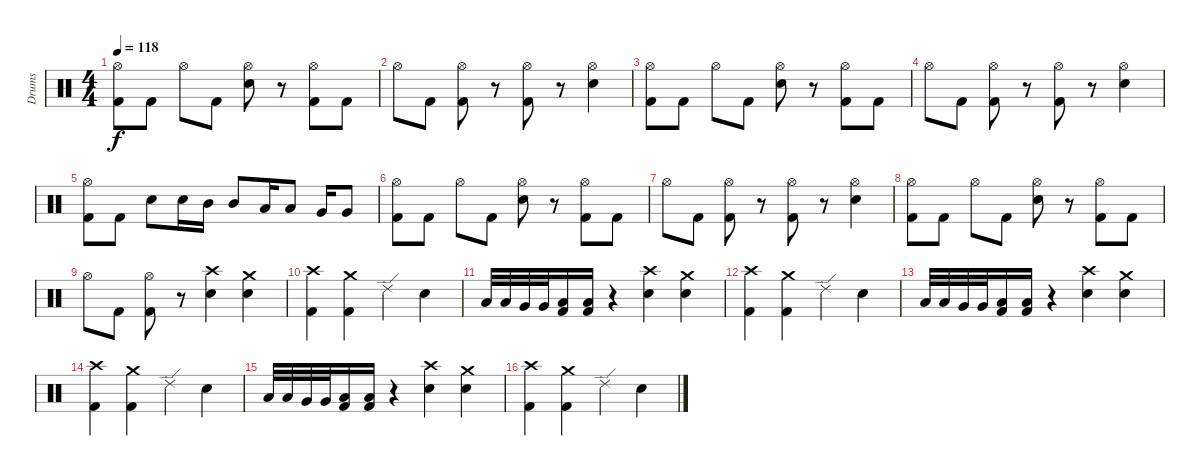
\track ("Drums" "Drums") {instrument percussion}
\staff {score}
\articulation defaults
\ts (4 4)
\tempo 118
\clef neutral
\ks c
("Hi-Hat (open)" "Kick (hit) 2").8{dy f} "Kick (hit) 2".8 "Hi-Hat (open)".8 "Kick (hit) 2".8 ("Hi-Hat (open)" "Electric Snare (hit)").8 r.8 ("Hi-Hat (open)" "Kick (hit) 2").8 "Kick (hit) 2".8 |
"Hi-Hat (open)".8 "Kick (hit) 2".8 ("Hi-Hat (open)" "Kick (hit) 2").8 r.8 ("Hi-Hat (open)" "Kick (hit) 2").8 r.8 ("Hi-Hat (open)" "Electric Snare (hit)").4 |
("Hi-Hat (open)" "Kick (hit) 2").8 "Kick (hit) 2".8 "Hi-Hat (open)".8 "Kick (hit) 2".8 ("Hi-Hat (open)" "Electric Snare (hit)").8 r.8 ("Hi-Hat (open)" "Kick (hit) 2").8 "Kick (hit) 2".8 |
"Hi-Hat (open)".8 "Kick (hit) 2".8 ("Hi-Hat (open)" "Kick (hit) 2").8 r.8 ("Hi-Hat (open)" "Kick (hit) 2").8 r.8 ("Hi-Hat (open)" "Electric Snare (hit)").4 |
("Hi-Hat (open)" "Kick (hit) 2").8 "Kick (hit) 2".8 "Electric Snare (hit)".8 "Electric Snare (hit)".16 "Mid Tom (hit)".16 "Mid Tom (hit)".8 "Low Tom (hit)".16 "Low Tom (hit)".8 "Very Low Tom (hit)".16 "Very Low Tom (hit)".8 |
("Hi-Hat (open)" "Kick (hit) 2").8 "Kick (hit) 2".8 "Hi-Hat (open)".8 "Kick (hit) 2".8 ("Hi-Hat (open)" "Electric Snare (hit)").8 r.8 ("Hi-Hat (open)" "Kick (hit) 2").8 "Kick (hit) 2".8 |
"Hi-Hat (open)".8 "Kick (hit) 2".8 ("Hi-Hat (open)" "Kick (hit) 2").8 r.8 ("Hi-Hat (open)" "Kick (hit) 2").8 r.8 ("Hi-Hat (open)" "Electric Snare (hit)").4 |
("Hi-Hat (open)" "Kick (hit) 2").8 "Kick (hit) 2".8 "Hi-Hat (open)".8 "Kick (hit) 2".8 ("Hi-Hat (open)" "Electric Snare (hit)").8 r.8 ("Hi-Hat (open)" "Kick (hit) 2").8 "Kick (hit) 2".8 |
"Hi-Hat (open)".8 "Kick (hit) 2".8 ("Hi-Hat (open)" "Kick (hit) 2").8 r.8 ("Crash high (hit)" "Electric Snare (hit)").4 ("Crash medium (hit)" "Electric Snare (hit)").4 |
("Crash high (hit)" "Kick (hit) 2").4 ("Crash medium (hit)" "Kick (hit) 2").4 "Ride (edge) 2".4 "Electric Snare (hit)".4 |
"Low Tom (hit)".32 "Low Tom (hit)".32 "Very Low Tom (hit)".32 "Very Low Tom (hit)".32 ("Low Floor Tom (hit)" "Kick (hit) 2").16 ("Low Floor Tom (hit)" "Kick (hit) 2").16 r.4 ("Crash high (hit)" "Electric Snare (hit)").4 ("Crash medium (hit)" "Electric Snare (hit)").4 |
("Crash high (hit)" "Kick (hit) 2").4 ("Crash medium (hit)" "Kick (hit) 2").4 "Ride (edge) 2".4 "Electric Snare (hit)".4 |
"Low Tom (hit)".32 "Low Tom (hit)".32 "Very Low Tom (hit)".32 "Very Low Tom (hit)".32 ("Low Floor Tom (hit)" "Kick (hit) 2").16 ("Low Floor Tom (hit)" "Kick (hit) 2").16 r.4 ("Crash high (hit)" "Electric Snare (hit)").4 ("Crash medium (hit)" "Electric Snare (hit)").4 |
("Crash high (hit)" "Kick (hit) 2").4 ("Crash medium (hit)" "Kick (hit) 2").4 "Ride (edge) 2".4 "Electric Snare (hit)".4 |
"Low Tom (hit)".32 "Low Tom (hit)".32 "Very Low Tom (hit)".32 "Very Low Tom (hit)".32 ("Low Floor Tom (hit)" "Kick (hit) 2").16 ("Low Floor Tom (hit)" "Kick (hit) 2").16 r.4 ("Crash high (hit)" "Electric Snare (hit)").4 ("Crash medium (hit)" "Electric Snare (hit)").4 |
("Crash high (hit)" "Kick (hit) 2").4 ("Crash medium (hit)" "Kick (hit) 2").4 "Ride (edge) 2".4 "Electric Snare (hit)".4
